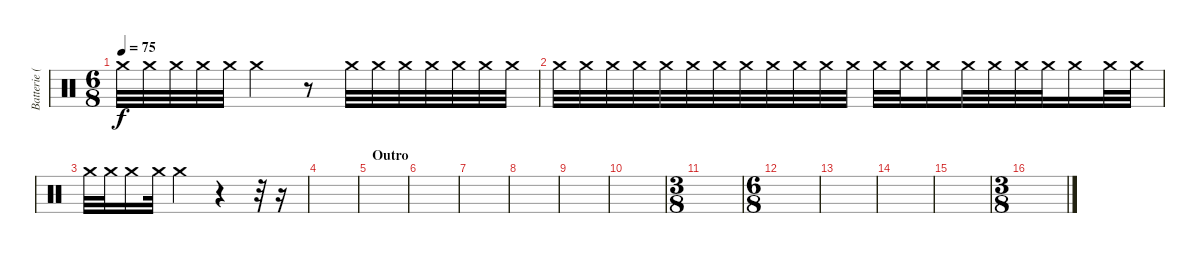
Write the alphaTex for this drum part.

\track ("Batterie ( Lars Ulrich )" "Batterie (") {instrument percussion}
\staff {score}
\articulation defaults
\ts (6 8)
\tempo 75
\clef neutral
\ks c "Crash medium (hit)".32{dy f} "Crash medium (hit)".32 "Crash medium (hit)".32 "Crash medium (hit)".32 "Crash medium (hit)".32 "Crash medium (hit)".4
r.8{volume 4} "Crash medium (hit)".32 "Crash medium (hit)".32 "Crash medium (hit)".32 "Crash medium (hit)".32 "Crash medium (hit)".32 "Crash medium (hit)".32 "Crash medium (hit)".32 |
"Crash medium (hit)".32 "Crash medium (hit)".32 "Crash medium (hit)".32 "Crash medium (hit)".32 "Crash medium (hit)".32 "Crash medium (hit)".32 "Crash medium (hit)".32 "Crash medium (hit)".32 "Crash medium (hit)".32 "Crash medium (hit)".32 "Crash medium (hit)".32 "Crash medium (hit)".32 "Crash medium (hit)".32 "Crash medium (hit)".32 "Crash medium (hit)".16 "Crash medium (hit)".32 "Crash medium (hit)".32 "Crash medium (hit)".32 "Crash medium (hit)".32 "Crash medium (hit)".16 "Crash medium (hit)".32 "Crash medium (hit)".32 |
"Crash medium (hit)".32 "Crash medium (hit)".32 "Crash medium (hit)".16 "Crash medium (hit)".32 "Crash medium (hit)".4 r.4 r.32 r.16 |
|
\section ("" "Outro")
|
|
|
|
|
|
\ts (3 8)
|
\ts (6 8)
|
|
|
|
\ts (3 8)
